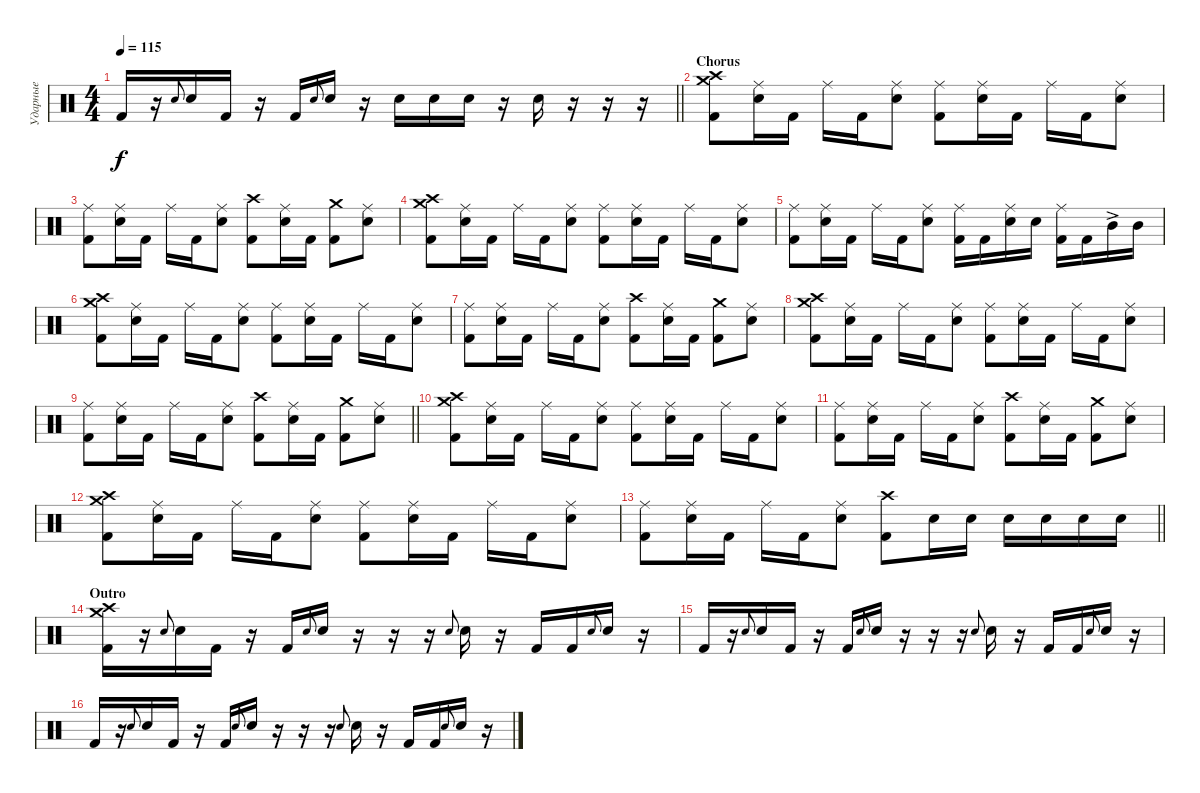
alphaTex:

\track ("Ударные" "Ударные") {instrument percussion}
\staff {score}
\articulation defaults
\ts (4 4)
\tempo 115
\clef neutral
\barLineRight lightlight
\ks c "Kick (hit) 2".16{dy f}
r.16 "Snare (hit) 2".8{gr onbeat} "Snare (hit) 2".16 "Kick (hit) 2".16 r.16 "Kick (hit) 2".16 "Snare (hit) 2".8{gr onbeat} "Snare (hit) 2".16 r.16 "Snare (hit) 2".16 "Snare (hit) 2".16 "Snare (hit) 2".16 r.16 "Snare (hit) 2".16 r.16 r.16 r.16 |
\section ("" "Chorus")
("Crash medium (hit)" "Crash high (hit)" "Kick (hit) 2").8 ("Ride (middle)" "Snare (hit) 2").16 "Kick (hit) 2".16 "Ride (middle)".16 "Kick (hit) 2".16 ("Ride (middle)" "Snare (hit) 2").8 ("Ride (middle)" "Kick (hit) 2").8 ("Ride (middle)" "Snare (hit) 2").16 "Kick (hit) 2".16 "Ride (middle)".16 "Kick (hit) 2".16 ("Ride (middle)" "Snare (hit) 2").8 |
("Ride (middle)" "Kick (hit) 2").8 ("Ride (middle)" "Snare (hit) 2").16 "Kick (hit) 2".16 "Ride (middle)".16 "Kick (hit) 2".16 ("Ride (middle)" "Snare (hit) 2").8 ("Crash high (hit)" "Kick (hit) 2").8 ("Ride (middle)" "Snare (hit) 2").16 "Kick (hit) 2".16 ("Crash medium (hit)" "Kick (hit) 2").8 ("Ride (middle)" "Snare (hit) 2").8 |
("Crash medium (hit)" "Crash high (hit)" "Kick (hit) 2").8 ("Ride (middle)" "Snare (hit) 2").16 "Kick (hit) 2".16 "Ride (middle)".16 "Kick (hit) 2".16 ("Ride (middle)" "Snare (hit) 2").8 ("Ride (middle)" "Kick (hit) 2").8 ("Ride (middle)" "Snare (hit) 2").16 "Kick (hit) 2".16 "Ride (middle)".16 "Kick (hit) 2".16 ("Ride (middle)" "Snare (hit) 2").8 |
("Ride (middle)" "Kick (hit) 2").8 ("Ride (middle)" "Snare (hit) 2").16 "Kick (hit) 2".16 "Ride (middle)".16 "Kick (hit) 2".16 ("Ride (middle)" "Snare (hit) 2").8 ("Ride (middle)" "Kick (hit) 2").16 "Kick (hit) 2".16 ("Ride (middle)" "Snare (hit) 2").16 "Snare (hit) 2".16 ("Ride (middle)" "Kick (hit) 2").16 "Kick (hit) 2".16 "Mid Tom (hit)"{ac}.16 "Mid Tom (hit)".16 |
("Crash medium (hit)" "Crash high (hit)" "Kick (hit) 2").8 ("Ride (middle)" "Snare (hit) 2").16 "Kick (hit) 2".16 "Ride (middle)".16 "Kick (hit) 2".16 ("Ride (middle)" "Snare (hit) 2").8 ("Ride (middle)" "Kick (hit) 2").8 ("Ride (middle)" "Snare (hit) 2").16 "Kick (hit) 2".16 "Ride (middle)".16 "Kick (hit) 2".16 ("Ride (middle)" "Snare (hit) 2").8 |
("Ride (middle)" "Kick (hit) 2").8 ("Ride (middle)" "Snare (hit) 2").16 "Kick (hit) 2".16 "Ride (middle)".16 "Kick (hit) 2".16 ("Ride (middle)" "Snare (hit) 2").8 ("Crash high (hit)" "Kick (hit) 2").8 ("Ride (middle)" "Snare (hit) 2").16 "Kick (hit) 2".16 ("Crash medium (hit)" "Kick (hit) 2").8 ("Ride (middle)" "Snare (hit) 2").8 |
("Crash medium (hit)" "Crash high (hit)" "Kick (hit) 2").8 ("Ride (middle)" "Snare (hit) 2").16 "Kick (hit) 2".16 "Ride (middle)".16 "Kick (hit) 2".16 ("Ride (middle)" "Snare (hit) 2").8 ("Ride (middle)" "Kick (hit) 2").8 ("Ride (middle)" "Snare (hit) 2").16 "Kick (hit) 2".16 "Ride (middle)".16 "Kick (hit) 2".16 ("Ride (middle)" "Snare (hit) 2").8 |
\barLineRight lightlight
("Ride (middle)" "Kick (hit) 2").8 ("Ride (middle)" "Snare (hit) 2").16 "Kick (hit) 2".16 "Ride (middle)".16 "Kick (hit) 2".16 ("Ride (middle)" "Snare (hit) 2").8 ("Crash high (hit)" "Kick (hit) 2").8 ("Ride (middle)" "Snare (hit) 2").16 "Kick (hit) 2".16 ("Crash medium (hit)" "Kick (hit) 2").8 ("Ride (middle)" "Snare (hit) 2").8 |
("Crash medium (hit)" "Crash high (hit)" "Kick (hit) 2").8 ("Ride (middle)" "Snare (hit) 2").16 "Kick (hit) 2".16 "Ride (middle)".16 "Kick (hit) 2".16 ("Ride (middle)" "Snare (hit) 2").8 ("Ride (middle)" "Kick (hit) 2").8 ("Ride (middle)" "Snare (hit) 2").16 "Kick (hit) 2".16 "Ride (middle)".16 "Kick (hit) 2".16 ("Ride (middle)" "Snare (hit) 2").8 |
("Ride (middle)" "Kick (hit) 2").8 ("Ride (middle)" "Snare (hit) 2").16 "Kick (hit) 2".16 "Ride (middle)".16 "Kick (hit) 2".16 ("Ride (middle)" "Snare (hit) 2").8 ("Crash high (hit)" "Kick (hit) 2").8 ("Ride (middle)" "Snare (hit) 2").16 "Kick (hit) 2".16 ("Crash medium (hit)" "Kick (hit) 2").8 ("Ride (middle)" "Snare (hit) 2").8 |
("Crash medium (hit)" "Crash high (hit)" "Kick (hit) 2").8 ("Ride (middle)" "Snare (hit) 2").16 "Kick (hit) 2".16 "Ride (middle)".16 "Kick (hit) 2".16 ("Ride (middle)" "Snare (hit) 2").8 ("Ride (middle)" "Kick (hit) 2").8 ("Ride (middle)" "Snare (hit) 2").16 "Kick (hit) 2".16 "Ride (middle)".16 "Kick (hit) 2".16 ("Ride (middle)" "Snare (hit) 2").8 |
\barLineRight lightlight
("Ride (middle)" "Kick (hit) 2").8 ("Ride (middle)" "Snare (hit) 2").16 "Kick (hit) 2".16 "Ride (middle)".16 "Kick (hit) 2".16 ("Ride (middle)" "Snare (hit) 2").8 ("Crash high (hit)" "Kick (hit) 2").8 "Snare (hit) 2".16 "Snare (hit) 2".16 "Snare (hit) 2".16 "Snare (hit) 2".16 "Snare (hit) 2".16 "Snare (hit) 2".16 |
\section ("" "Outro")
("Crash medium (hit)" "Crash high (hit)" "Kick (hit) 2").16 r.16 "Snare (hit) 2".8{gr onbeat} "Snare (hit) 2".16 "Kick (hit) 2".16 r.16 "Kick (hit) 2".16 "Snare (hit) 2".8{gr onbeat} "Snare (hit) 2".16 r.16 r.16 r.16 "Snare (hit) 2".8{gr onbeat} "Snare (hit) 2".16 r.16 "Kick (hit) 2".16 "Kick (hit) 2".16 "Snare (hit) 2".8{gr onbeat} "Snare (hit) 2".16 r.16 |
"Kick (hit) 2".16 r.16 "Snare (hit) 2".8{gr onbeat} "Snare (hit) 2".16 "Kick (hit) 2".16 r.16 "Kick (hit) 2".16 "Snare (hit) 2".8{gr onbeat} "Snare (hit) 2".16 r.16 r.16 r.16 "Snare (hit) 2".8{gr onbeat} "Snare (hit) 2".16 r.16 "Kick (hit) 2".16 "Kick (hit) 2".16 "Snare (hit) 2".8{gr onbeat} "Snare (hit) 2".16 r.16 |
"Kick (hit) 2".16 r.16 "Snare (hit) 2".8{gr onbeat} "Snare (hit) 2".16 "Kick (hit) 2".16 r.16 "Kick (hit) 2".16 "Snare (hit) 2".8{gr onbeat} "Snare (hit) 2".16 r.16 r.16 r.16 "Snare (hit) 2".8{gr onbeat} "Snare (hit) 2".16 r.16 "Kick (hit) 2".16 "Kick (hit) 2".16 "Snare (hit) 2".8{gr onbeat} "Snare (hit) 2".16 r.16
